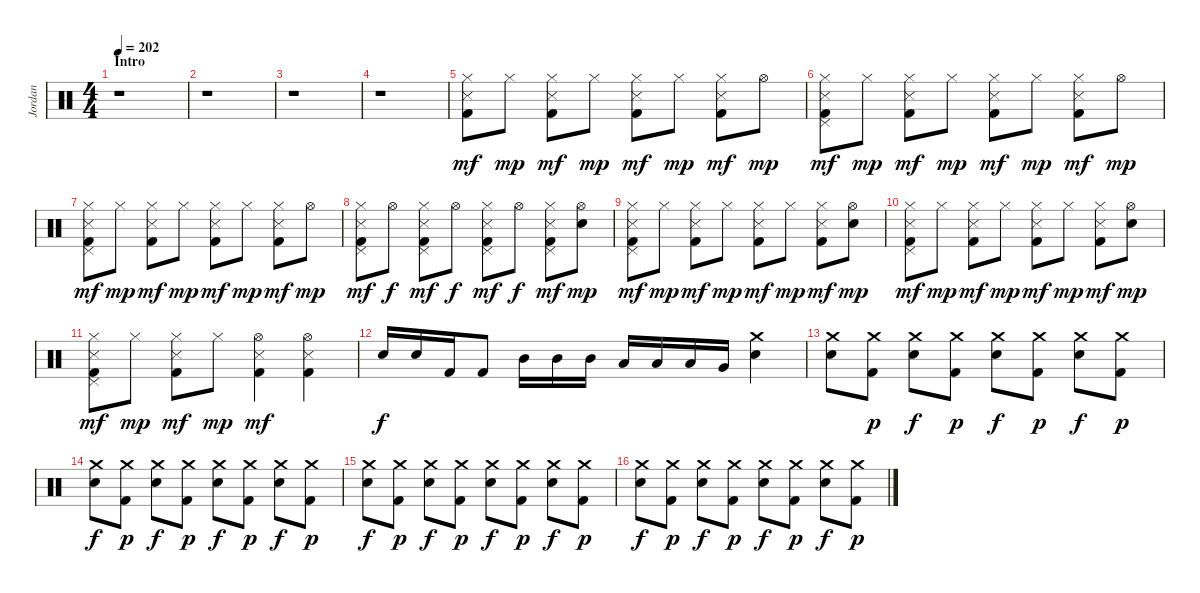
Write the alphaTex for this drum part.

\track ("Jordan" "Jordan") {instrument percussion}
\staff {score}
\articulation defaults
\ts (4 4)
\section ("" "Intro")
\tempo 202
\clef neutral
\ks c
r.1{dy mf} |
r.1 |
r.1 |
r.1 |
("Hi-Hat (closed)" "Snare (side stick) 3" "Kick (hit) 2").8 "Hi-Hat (closed)".8{dy mp} ("Hi-Hat (closed)" "Snare (side stick) 3" "Kick (hit) 2").8{dy mf} "Hi-Hat (closed)".8{dy mp} ("Hi-Hat (closed)" "Snare (side stick) 3" "Kick (hit) 2").8{dy mf} "Hi-Hat (closed)".8{dy mp} ("Hi-Hat (closed)" "Snare (side stick) 3" "Kick (hit) 2").8{dy mf} "Hi-Hat (open)".8{dy mp} |
("Hi-Hat (closed)" "Pedal Hi-Hat (hit)" "Snare (side stick) 3" "Kick (hit) 2").8{dy mf} "Hi-Hat (closed)".8{dy mp} ("Hi-Hat (closed)" "Snare (side stick) 3" "Kick (hit) 2").8{dy mf} "Hi-Hat (closed)".8{dy mp} ("Hi-Hat (closed)" "Snare (side stick) 3" "Kick (hit) 2").8{dy mf} "Hi-Hat (closed)".8{dy mp} ("Hi-Hat (closed)" "Snare (side stick) 3" "Kick (hit) 2").8{dy mf} "Hi-Hat (open)".8{dy mp} |
("Hi-Hat (closed)" "Pedal Hi-Hat (hit)" "Snare (side stick) 3" "Kick (hit) 2").8{dy mf} "Hi-Hat (closed)".8{dy mp} ("Hi-Hat (closed)" "Snare (side stick) 3" "Kick (hit) 2").8{dy mf} "Hi-Hat (closed)".8{dy mp} ("Hi-Hat (closed)" "Snare (side stick) 3" "Kick (hit) 2").8{dy mf} "Hi-Hat (closed)".8{dy mp} ("Hi-Hat (closed)" "Snare (side stick) 3" "Kick (hit) 2").8{dy mf} "Hi-Hat (open)".8{dy mp} |
("Hi-Hat (closed)" "Pedal Hi-Hat (hit)" "Snare (side stick) 3" "Kick (hit) 2").8{dy mf} "Hi-Hat (open)".8{dy f} ("Hi-Hat (closed)" "Pedal Hi-Hat (hit)" "Snare (side stick) 3" "Kick (hit) 2").8{dy mf} "Hi-Hat (open)".8{dy f} ("Hi-Hat (closed)" "Pedal Hi-Hat (hit)" "Snare (side stick) 3" "Kick (hit) 2").8{dy mf} "Hi-Hat (open)".8{dy f} ("Hi-Hat (closed)" "Pedal Hi-Hat (hit)" "Snare (side stick) 3" "Kick (hit) 2").8{dy mf} ("Hi-Hat (open)" "Electric Snare (hit)").8{dy mp} |
("Hi-Hat (closed)" "Pedal Hi-Hat (hit)" "Snare (side stick) 3" "Kick (hit) 2").8{dy mf} "Hi-Hat (closed)".8{dy mp} ("Hi-Hat (closed)" "Snare (side stick) 3" "Kick (hit) 2").8{dy mf} "Hi-Hat (closed)".8{dy mp} ("Hi-Hat (closed)" "Snare (side stick) 3" "Kick (hit) 2").8{dy mf} "Hi-Hat (closed)".8{dy mp} ("Hi-Hat (closed)" "Snare (side stick) 3" "Kick (hit) 2").8{dy mf} ("Hi-Hat (open)" "Electric Snare (hit)").8{dy mp} |
("Hi-Hat (closed)" "Pedal Hi-Hat (hit)" "Snare (side stick) 3" "Kick (hit) 2").8{dy mf} "Hi-Hat (closed)".8{dy mp} ("Hi-Hat (closed)" "Snare (side stick) 3" "Kick (hit) 2").8{dy mf} "Hi-Hat (closed)".8{dy mp} ("Hi-Hat (closed)" "Snare (side stick) 3" "Kick (hit) 2").8{dy mf} "Hi-Hat (closed)".8{dy mp} ("Hi-Hat (closed)" "Snare (side stick) 3" "Kick (hit) 2").8{dy mf} ("Hi-Hat (open)" "Electric Snare (hit)").8{dy mp} |
("Hi-Hat (closed)" "Pedal Hi-Hat (hit)" "Snare (side stick) 3" "Kick (hit) 2").8{dy mf} "Hi-Hat (closed)".8{dy mp} ("Hi-Hat (closed)" "Snare (side stick) 3" "Kick (hit) 2").8{dy mf} "Hi-Hat (closed)".8{dy mp} ("Hi-Hat (open)" "Snare (side stick) 3" "Kick (hit) 2").4{dy mf} ("Hi-Hat (open)" "Snare (side stick) 3" "Kick (hit) 2").4 |
"Electric Snare (hit)".16{dy f} "Electric Snare (hit)".16 "Kick (hit) 2".16 "Kick (hit) 2".8 "Mid Tom (hit)".16 "Mid Tom (hit)".16 "Mid Tom (hit)".16 "Low Tom (hit)".16 "Low Tom (hit)".16 "Low Tom (hit)".16 "Very Low Tom (hit)".16 ("Crash medium (hit)" "Electric Snare (hit)").4 |
("Crash medium (hit)" "Electric Snare (hit)").8 ("Crash medium (hit)" "Kick (hit) 2").8{dy p} ("Crash medium (hit)" "Electric Snare (hit)").8{dy f} ("Crash medium (hit)" "Kick (hit) 2").8{dy p} ("Crash medium (hit)" "Electric Snare (hit)").8{dy f} ("Crash medium (hit)" "Kick (hit) 2").8{dy p} ("Crash medium (hit)" "Electric Snare (hit)").8{dy f} ("Crash medium (hit)" "Kick (hit) 2").8{dy p} |
("Crash medium (hit)" "Electric Snare (hit)").8{dy f} ("Crash medium (hit)" "Kick (hit) 2").8{dy p} ("Crash medium (hit)" "Electric Snare (hit)").8{dy f} ("Crash medium (hit)" "Kick (hit) 2").8{dy p} ("Crash medium (hit)" "Electric Snare (hit)").8{dy f} ("Crash medium (hit)" "Kick (hit) 2").8{dy p} ("Crash medium (hit)" "Electric Snare (hit)").8{dy f} ("Crash medium (hit)" "Kick (hit) 2").8{dy p} |
("Crash medium (hit)" "Electric Snare (hit)").8{dy f} ("Crash medium (hit)" "Kick (hit) 2").8{dy p} ("Crash medium (hit)" "Electric Snare (hit)").8{dy f} ("Crash medium (hit)" "Kick (hit) 2").8{dy p} ("Crash medium (hit)" "Electric Snare (hit)").8{dy f} ("Crash medium (hit)" "Kick (hit) 2").8{dy p} ("Crash medium (hit)" "Electric Snare (hit)").8{dy f} ("Crash medium (hit)" "Kick (hit) 2").8{dy p} |
("Crash medium (hit)" "Electric Snare (hit)").8{dy f} ("Crash medium (hit)" "Kick (hit) 2").8{dy p} ("Crash medium (hit)" "Electric Snare (hit)").8{dy f} ("Crash medium (hit)" "Kick (hit) 2").8{dy p} ("Crash medium (hit)" "Electric Snare (hit)").8{dy f} ("Crash medium (hit)" "Kick (hit) 2").8{dy p} ("Crash medium (hit)" "Electric Snare (hit)").8{dy f} ("Crash medium (hit)" "Kick (hit) 2").8{dy p}
